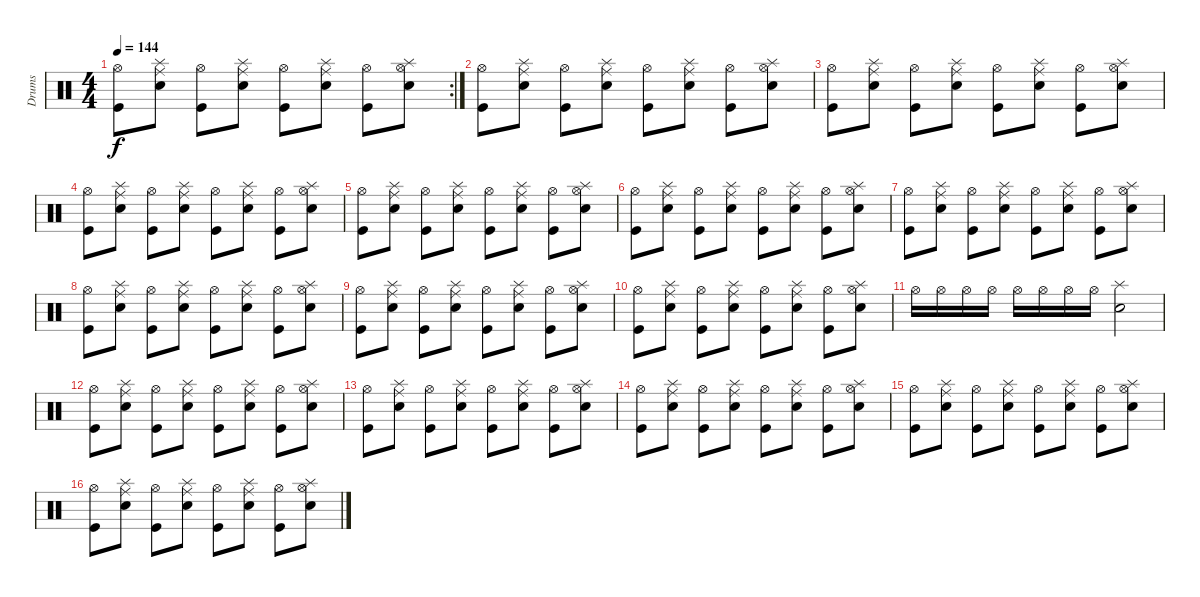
\track ("Drums" "Drums") {instrument percussion}
\staff {score}
\articulation defaults
\rc 2
\ts (4 4)
\tempo 144
\clef neutral
\ks c
("Kick (hit)" "Hi-Hat (open)").8{dy f} ("Snare (hit) 2" "Ride (middle)" "Splash (hit)").8 ("Kick (hit)" "Hi-Hat (open)").8 ("Snare (hit) 2" "Ride (middle)" "Splash (hit)").8 ("Kick (hit)" "Hi-Hat (open)").8 ("Snare (hit) 2" "Ride (middle)" "Splash (hit)").8 ("Kick (hit)" "Hi-Hat (open)").8 ("Snare (hit) 2" "Hi-Hat (open)" "Splash (hit)").8 |
("Kick (hit)" "Hi-Hat (open)").8 ("Snare (hit) 2" "Ride (middle)" "Splash (hit)").8 ("Kick (hit)" "Hi-Hat (open)").8 ("Snare (hit) 2" "Ride (middle)" "Splash (hit)").8 ("Kick (hit)" "Hi-Hat (open)").8 ("Snare (hit) 2" "Ride (middle)" "Splash (hit)").8 ("Kick (hit)" "Hi-Hat (open)").8 ("Snare (hit) 2" "Hi-Hat (open)" "Splash (hit)").8 |
("Kick (hit)" "Hi-Hat (open)").8 ("Snare (hit) 2" "Ride (middle)" "Splash (hit)").8 ("Kick (hit)" "Hi-Hat (open)").8 ("Snare (hit) 2" "Ride (middle)" "Splash (hit)").8 ("Kick (hit)" "Hi-Hat (open)").8 ("Snare (hit) 2" "Ride (middle)" "Splash (hit)").8 ("Kick (hit)" "Hi-Hat (open)").8 ("Snare (hit) 2" "Hi-Hat (open)" "Splash (hit)").8 |
("Kick (hit)" "Hi-Hat (open)").8 ("Snare (hit) 2" "Ride (middle)" "Splash (hit)").8 ("Kick (hit)" "Hi-Hat (open)").8 ("Snare (hit) 2" "Ride (middle)" "Splash (hit)").8 ("Kick (hit)" "Hi-Hat (open)").8 ("Snare (hit) 2" "Ride (middle)" "Splash (hit)").8 ("Kick (hit)" "Hi-Hat (open)").8 ("Snare (hit) 2" "Hi-Hat (open)" "Splash (hit)").8 |
("Kick (hit)" "Hi-Hat (open)").8 ("Snare (hit) 2" "Ride (middle)" "Splash (hit)").8 ("Kick (hit)" "Hi-Hat (open)").8 ("Snare (hit) 2" "Ride (middle)" "Splash (hit)").8 ("Kick (hit)" "Hi-Hat (open)").8 ("Snare (hit) 2" "Ride (middle)" "Splash (hit)").8 ("Kick (hit)" "Hi-Hat (open)").8 ("Snare (hit) 2" "Hi-Hat (open)" "Splash (hit)").8 |
("Kick (hit)" "Hi-Hat (open)").8 ("Snare (hit) 2" "Ride (middle)" "Splash (hit)").8 ("Kick (hit)" "Hi-Hat (open)").8 ("Snare (hit) 2" "Ride (middle)" "Splash (hit)").8 ("Kick (hit)" "Hi-Hat (open)").8 ("Snare (hit) 2" "Ride (middle)" "Splash (hit)").8 ("Kick (hit)" "Hi-Hat (open)").8 ("Snare (hit) 2" "Hi-Hat (open)" "Splash (hit)").8 |
("Kick (hit)" "Hi-Hat (open)").8 ("Snare (hit) 2" "Ride (middle)" "Splash (hit)").8 ("Kick (hit)" "Hi-Hat (open)").8 ("Snare (hit) 2" "Ride (middle)" "Splash (hit)").8 ("Kick (hit)" "Hi-Hat (open)").8 ("Snare (hit) 2" "Ride (middle)" "Splash (hit)").8 ("Kick (hit)" "Hi-Hat (open)").8 ("Snare (hit) 2" "Hi-Hat (open)" "Splash (hit)").8 |
("Kick (hit)" "Hi-Hat (open)").8 ("Snare (hit) 2" "Ride (middle)" "Splash (hit)").8 ("Kick (hit)" "Hi-Hat (open)").8 ("Snare (hit) 2" "Ride (middle)" "Splash (hit)").8 ("Kick (hit)" "Hi-Hat (open)").8 ("Snare (hit) 2" "Ride (middle)" "Splash (hit)").8 ("Kick (hit)" "Hi-Hat (open)").8 ("Snare (hit) 2" "Hi-Hat (open)" "Splash (hit)").8 |
("Kick (hit)" "Hi-Hat (open)").8 ("Snare (hit) 2" "Ride (middle)" "Splash (hit)").8 ("Kick (hit)" "Hi-Hat (open)").8 ("Snare (hit) 2" "Ride (middle)" "Splash (hit)").8 ("Kick (hit)" "Hi-Hat (open)").8 ("Snare (hit) 2" "Ride (middle)" "Splash (hit)").8 ("Kick (hit)" "Hi-Hat (open)").8 ("Snare (hit) 2" "Hi-Hat (open)" "Splash (hit)").8 |
("Kick (hit)" "Hi-Hat (open)").8 ("Snare (hit) 2" "Ride (middle)" "Splash (hit)").8 ("Kick (hit)" "Hi-Hat (open)").8 ("Snare (hit) 2" "Ride (middle)" "Splash (hit)").8 ("Kick (hit)" "Hi-Hat (open)").8 ("Snare (hit) 2" "Ride (middle)" "Splash (hit)").8 ("Kick (hit)" "Hi-Hat (open)").8 ("Snare (hit) 2" "Hi-Hat (open)" "Splash (hit)").8 |
"Hi-Hat (open)".16 "Hi-Hat (open)".16 "Hi-Hat (open)".16 "Hi-Hat (open)".16 "Hi-Hat (open)".16 "Hi-Hat (open)".16 "Hi-Hat (open)".16 "Hi-Hat (open)".16 ("Snare (hit) 2" "Splash (hit)").2 |
("Kick (hit)" "Hi-Hat (open)").8 ("Snare (hit) 2" "Ride (middle)" "Splash (hit)").8 ("Kick (hit)" "Hi-Hat (open)").8 ("Snare (hit) 2" "Ride (middle)" "Splash (hit)").8 ("Kick (hit)" "Hi-Hat (open)").8 ("Snare (hit) 2" "Ride (middle)" "Splash (hit)").8 ("Kick (hit)" "Hi-Hat (open)").8 ("Snare (hit) 2" "Hi-Hat (open)" "Splash (hit)").8 |
("Kick (hit)" "Hi-Hat (open)").8 ("Snare (hit) 2" "Ride (middle)" "Splash (hit)").8 ("Kick (hit)" "Hi-Hat (open)").8 ("Snare (hit) 2" "Ride (middle)" "Splash (hit)").8 ("Kick (hit)" "Hi-Hat (open)").8 ("Snare (hit) 2" "Ride (middle)" "Splash (hit)").8 ("Kick (hit)" "Hi-Hat (open)").8 ("Snare (hit) 2" "Hi-Hat (open)" "Splash (hit)").8 |
("Kick (hit)" "Hi-Hat (open)").8 ("Snare (hit) 2" "Ride (middle)" "Splash (hit)").8 ("Kick (hit)" "Hi-Hat (open)").8 ("Snare (hit) 2" "Ride (middle)" "Splash (hit)").8 ("Kick (hit)" "Hi-Hat (open)").8 ("Snare (hit) 2" "Ride (middle)" "Splash (hit)").8 ("Kick (hit)" "Hi-Hat (open)").8 ("Snare (hit) 2" "Hi-Hat (open)" "Splash (hit)").8 |
("Kick (hit)" "Hi-Hat (open)").8 ("Snare (hit) 2" "Ride (middle)" "Splash (hit)").8 ("Kick (hit)" "Hi-Hat (open)").8 ("Snare (hit) 2" "Ride (middle)" "Splash (hit)").8 ("Kick (hit)" "Hi-Hat (open)").8 ("Snare (hit) 2" "Ride (middle)" "Splash (hit)").8 ("Kick (hit)" "Hi-Hat (open)").8 ("Snare (hit) 2" "Hi-Hat (open)" "Splash (hit)").8 |
("Kick (hit)" "Hi-Hat (open)").8 ("Snare (hit) 2" "Ride (middle)" "Splash (hit)").8 ("Kick (hit)" "Hi-Hat (open)").8 ("Snare (hit) 2" "Ride (middle)" "Splash (hit)").8 ("Kick (hit)" "Hi-Hat (open)").8 ("Snare (hit) 2" "Ride (middle)" "Splash (hit)").8 ("Kick (hit)" "Hi-Hat (open)").8 ("Snare (hit) 2" "Hi-Hat (open)" "Splash (hit)").8
